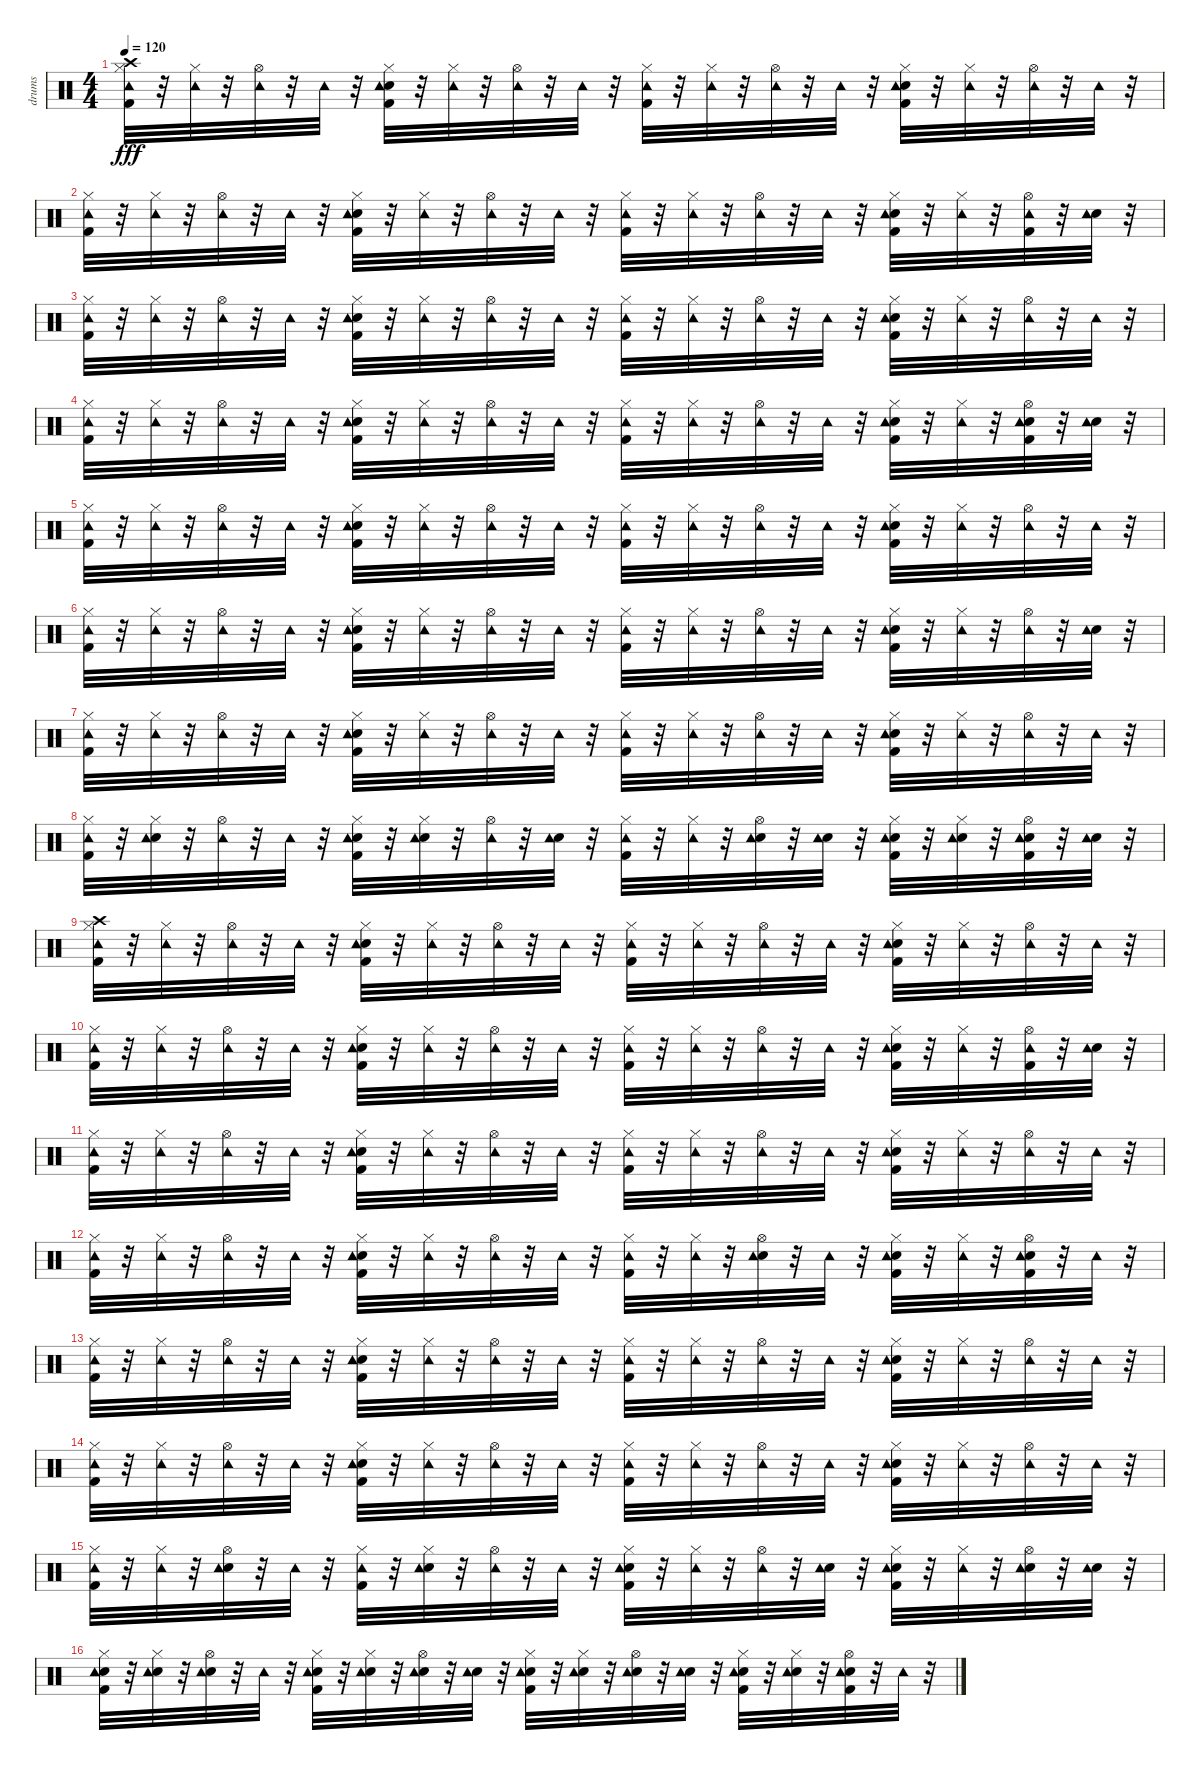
\track ("drums" "drums") {instrument percussion}
\staff {score}
\articulation defaults
\ts (4 4)
\tempo 120
\clef neutral
\ks c
("Crash high (hit)" "Kick (hit) 2" "Hi-Hat (closed)" "Tambourine (hit)").32{dy fff} r.32 ("Hi-Hat (closed)" "Tambourine (hit)").32 r.32 ("Hi-Hat (open)" "Tambourine (hit)").32 r.32 "Tambourine (hit)".32 r.32 ("Snare (hit) 2" "Kick (hit) 2" "Hi-Hat (closed)" "Tambourine (hit)").32 r.32 ("Hi-Hat (closed)" "Tambourine (hit)").32 r.32 ("Hi-Hat (open)" "Tambourine (hit)").32 r.32 "Tambourine (hit)".32 r.32 ("Kick (hit) 2" "Hi-Hat (closed)" "Tambourine (hit)").32 r.32 ("Hi-Hat (closed)" "Tambourine (hit)").32 r.32 ("Hi-Hat (open)" "Tambourine (hit)").32 r.32 "Tambourine (hit)".32 r.32 ("Snare (hit) 2" "Kick (hit) 2" "Hi-Hat (closed)" "Tambourine (hit)").32 r.32 ("Hi-Hat (closed)" "Tambourine (hit)").32 r.32 ("Hi-Hat (open)" "Tambourine (hit)").32 r.32 "Tambourine (hit)".32 r.32 |
("Kick (hit) 2" "Hi-Hat (closed)" "Tambourine (hit)").32 r.32 ("Hi-Hat (closed)" "Tambourine (hit)").32 r.32 ("Hi-Hat (open)" "Tambourine (hit)").32 r.32 "Tambourine (hit)".32 r.32 ("Snare (hit) 2" "Kick (hit) 2" "Hi-Hat (closed)" "Tambourine (hit)").32 r.32 ("Hi-Hat (closed)" "Tambourine (hit)").32 r.32 ("Hi-Hat (open)" "Tambourine (hit)").32 r.32 "Tambourine (hit)".32 r.32 ("Kick (hit) 2" "Hi-Hat (closed)" "Tambourine (hit)").32 r.32 ("Hi-Hat (closed)" "Tambourine (hit)").32 r.32 ("Hi-Hat (open)" "Tambourine (hit)").32 r.32 "Tambourine (hit)".32 r.32 ("Snare (hit) 2" "Kick (hit) 2" "Hi-Hat (closed)" "Tambourine (hit)").32 r.32 ("Hi-Hat (closed)" "Tambourine (hit)").32 r.32 ("Kick (hit) 2" "Hi-Hat (open)" "Tambourine (hit)").32 r.32 ("Snare (hit) 2" "Tambourine (hit)").32 r.32 |
("Kick (hit) 2" "Hi-Hat (closed)" "Tambourine (hit)").32 r.32 ("Hi-Hat (closed)" "Tambourine (hit)").32 r.32 ("Hi-Hat (open)" "Tambourine (hit)").32 r.32 "Tambourine (hit)".32 r.32 ("Snare (hit) 2" "Kick (hit) 2" "Hi-Hat (closed)" "Tambourine (hit)").32 r.32 ("Hi-Hat (closed)" "Tambourine (hit)").32 r.32 ("Hi-Hat (open)" "Tambourine (hit)").32 r.32 "Tambourine (hit)".32 r.32 ("Kick (hit) 2" "Hi-Hat (closed)" "Tambourine (hit)").32 r.32 ("Hi-Hat (closed)" "Tambourine (hit)").32 r.32 ("Hi-Hat (open)" "Tambourine (hit)").32 r.32 "Tambourine (hit)".32 r.32 ("Snare (hit) 2" "Kick (hit) 2" "Hi-Hat (closed)" "Tambourine (hit)").32 r.32 ("Hi-Hat (closed)" "Tambourine (hit)").32 r.32 ("Hi-Hat (open)" "Tambourine (hit)").32 r.32 "Tambourine (hit)".32 r.32 |
("Kick (hit) 2" "Hi-Hat (closed)" "Tambourine (hit)").32 r.32 ("Hi-Hat (closed)" "Tambourine (hit)").32 r.32 ("Hi-Hat (open)" "Tambourine (hit)").32 r.32 "Tambourine (hit)".32 r.32 ("Snare (hit) 2" "Kick (hit) 2" "Hi-Hat (closed)" "Tambourine (hit)").32 r.32 ("Hi-Hat (closed)" "Tambourine (hit)").32 r.32 ("Hi-Hat (open)" "Tambourine (hit)").32 r.32 "Tambourine (hit)".32 r.32 ("Kick (hit) 2" "Hi-Hat (closed)" "Tambourine (hit)").32 r.32 ("Hi-Hat (closed)" "Tambourine (hit)").32 r.32 ("Hi-Hat (open)" "Tambourine (hit)").32 r.32 "Tambourine (hit)".32 r.32 ("Snare (hit) 2" "Kick (hit) 2" "Hi-Hat (closed)" "Tambourine (hit)").32 r.32 ("Hi-Hat (closed)" "Tambourine (hit)").32 r.32 ("Kick (hit) 2" "Snare (hit) 2" "Hi-Hat (open)" "Tambourine (hit)").32 r.32 ("Snare (hit) 2" "Tambourine (hit)").32 r.32 |
("Kick (hit) 2" "Hi-Hat (closed)" "Tambourine (hit)").32 r.32 ("Hi-Hat (closed)" "Tambourine (hit)").32 r.32 ("Hi-Hat (open)" "Tambourine (hit)").32 r.32 "Tambourine (hit)".32 r.32 ("Snare (hit) 2" "Kick (hit) 2" "Hi-Hat (closed)" "Tambourine (hit)").32 r.32 ("Hi-Hat (closed)" "Tambourine (hit)").32 r.32 ("Hi-Hat (open)" "Tambourine (hit)").32 r.32 "Tambourine (hit)".32 r.32 ("Kick (hit) 2" "Hi-Hat (closed)" "Tambourine (hit)").32 r.32 ("Hi-Hat (closed)" "Tambourine (hit)").32 r.32 ("Hi-Hat (open)" "Tambourine (hit)").32 r.32 "Tambourine (hit)".32 r.32 ("Snare (hit) 2" "Kick (hit) 2" "Hi-Hat (closed)" "Tambourine (hit)").32 r.32 ("Hi-Hat (closed)" "Tambourine (hit)").32 r.32 ("Hi-Hat (open)" "Tambourine (hit)").32 r.32 "Tambourine (hit)".32 r.32 |
("Kick (hit) 2" "Hi-Hat (closed)" "Tambourine (hit)").32 r.32 ("Hi-Hat (closed)" "Tambourine (hit)").32 r.32 ("Hi-Hat (open)" "Tambourine (hit)").32 r.32 "Tambourine (hit)".32 r.32 ("Snare (hit) 2" "Kick (hit) 2" "Hi-Hat (closed)" "Tambourine (hit)").32 r.32 ("Hi-Hat (closed)" "Tambourine (hit)").32 r.32 ("Hi-Hat (open)" "Tambourine (hit)").32 r.32 "Tambourine (hit)".32 r.32 ("Kick (hit) 2" "Hi-Hat (closed)" "Tambourine (hit)").32 r.32 ("Hi-Hat (closed)" "Tambourine (hit)").32 r.32 ("Hi-Hat (open)" "Tambourine (hit)").32 r.32 "Tambourine (hit)".32 r.32 ("Snare (hit) 2" "Kick (hit) 2" "Hi-Hat (closed)" "Tambourine (hit)").32 r.32 ("Hi-Hat (closed)" "Tambourine (hit)").32 r.32 ("Hi-Hat (open)" "Tambourine (hit)").32 r.32 ("Snare (hit) 2" "Tambourine (hit)").32 r.32 |
("Kick (hit) 2" "Hi-Hat (closed)" "Tambourine (hit)").32 r.32 ("Hi-Hat (closed)" "Tambourine (hit)").32 r.32 ("Hi-Hat (open)" "Tambourine (hit)").32 r.32 "Tambourine (hit)".32 r.32 ("Snare (hit) 2" "Kick (hit) 2" "Hi-Hat (closed)" "Tambourine (hit)").32 r.32 ("Hi-Hat (closed)" "Tambourine (hit)").32 r.32 ("Hi-Hat (open)" "Tambourine (hit)").32 r.32 "Tambourine (hit)".32 r.32 ("Kick (hit) 2" "Hi-Hat (closed)" "Tambourine (hit)").32 r.32 ("Hi-Hat (closed)" "Tambourine (hit)").32 r.32 ("Hi-Hat (open)" "Tambourine (hit)").32 r.32 "Tambourine (hit)".32 r.32 ("Snare (hit) 2" "Kick (hit) 2" "Hi-Hat (closed)" "Tambourine (hit)").32 r.32 ("Hi-Hat (closed)" "Tambourine (hit)").32 r.32 ("Hi-Hat (open)" "Tambourine (hit)").32 r.32 "Tambourine (hit)".32 r.32 |
("Kick (hit) 2" "Hi-Hat (closed)" "Tambourine (hit)").32 r.32 ("Snare (hit) 2" "Hi-Hat (closed)" "Tambourine (hit)").32 r.32 ("Hi-Hat (open)" "Tambourine (hit)").32 r.32 "Tambourine (hit)".32 r.32 ("Snare (hit) 2" "Kick (hit) 2" "Hi-Hat (closed)" "Tambourine (hit)").32 r.32 ("Snare (hit) 2" "Hi-Hat (closed)" "Tambourine (hit)").32 r.32 ("Hi-Hat (open)" "Tambourine (hit)").32 r.32 ("Snare (hit) 2" "Tambourine (hit)").32 r.32 ("Kick (hit) 2" "Hi-Hat (closed)" "Tambourine (hit)").32 r.32 ("Hi-Hat (closed)" "Tambourine (hit)").32 r.32 ("Hi-Hat (open)" "Snare (hit) 2" "Tambourine (hit)").32 r.32 ("Snare (hit) 2" "Tambourine (hit)").32 r.32 ("Snare (hit) 2" "Kick (hit) 2" "Hi-Hat (closed)" "Tambourine (hit)").32 r.32 ("Snare (hit) 2" "Hi-Hat (closed)" "Tambourine (hit)").32 r.32 ("Kick (hit) 2" "Snare (hit) 2" "Hi-Hat (open)" "Tambourine (hit)").32 r.32 ("Snare (hit) 2" "Tambourine (hit)").32 r.32 |
("Crash high (hit)" "Kick (hit) 2" "Hi-Hat (closed)" "Tambourine (hit)").32 r.32 ("Hi-Hat (closed)" "Tambourine (hit)").32 r.32 ("Hi-Hat (open)" "Tambourine (hit)").32 r.32 "Tambourine (hit)".32 r.32 ("Snare (hit) 2" "Kick (hit) 2" "Hi-Hat (closed)" "Tambourine (hit)").32 r.32 ("Hi-Hat (closed)" "Tambourine (hit)").32 r.32 ("Hi-Hat (open)" "Tambourine (hit)").32 r.32 "Tambourine (hit)".32 r.32 ("Kick (hit) 2" "Hi-Hat (closed)" "Tambourine (hit)").32 r.32 ("Hi-Hat (closed)" "Tambourine (hit)").32 r.32 ("Hi-Hat (open)" "Tambourine (hit)").32 r.32 "Tambourine (hit)".32 r.32 ("Snare (hit) 2" "Kick (hit) 2" "Hi-Hat (closed)" "Tambourine (hit)").32 r.32 ("Hi-Hat (closed)" "Tambourine (hit)").32 r.32 ("Hi-Hat (open)" "Tambourine (hit)").32 r.32 "Tambourine (hit)".32 r.32 |
("Kick (hit) 2" "Hi-Hat (closed)" "Tambourine (hit)").32 r.32 ("Hi-Hat (closed)" "Tambourine (hit)").32 r.32 ("Hi-Hat (open)" "Tambourine (hit)").32 r.32 "Tambourine (hit)".32 r.32 ("Snare (hit) 2" "Kick (hit) 2" "Hi-Hat (closed)" "Tambourine (hit)").32 r.32 ("Hi-Hat (closed)" "Tambourine (hit)").32 r.32 ("Hi-Hat (open)" "Tambourine (hit)").32 r.32 "Tambourine (hit)".32 r.32 ("Kick (hit) 2" "Hi-Hat (closed)" "Tambourine (hit)").32 r.32 ("Hi-Hat (closed)" "Tambourine (hit)").32 r.32 ("Hi-Hat (open)" "Tambourine (hit)").32 r.32 "Tambourine (hit)".32 r.32 ("Snare (hit) 2" "Kick (hit) 2" "Hi-Hat (closed)" "Tambourine (hit)").32 r.32 ("Hi-Hat (closed)" "Tambourine (hit)").32 r.32 ("Kick (hit) 2" "Hi-Hat (open)" "Tambourine (hit)").32 r.32 ("Snare (hit) 2" "Tambourine (hit)").32 r.32 |
("Kick (hit) 2" "Hi-Hat (closed)" "Tambourine (hit)").32 r.32 ("Hi-Hat (closed)" "Tambourine (hit)").32 r.32 ("Hi-Hat (open)" "Tambourine (hit)").32 r.32 "Tambourine (hit)".32 r.32 ("Snare (hit) 2" "Kick (hit) 2" "Hi-Hat (closed)" "Tambourine (hit)").32 r.32 ("Hi-Hat (closed)" "Tambourine (hit)").32 r.32 ("Hi-Hat (open)" "Tambourine (hit)").32 r.32 "Tambourine (hit)".32 r.32 ("Kick (hit) 2" "Hi-Hat (closed)" "Tambourine (hit)").32 r.32 ("Hi-Hat (closed)" "Tambourine (hit)").32 r.32 ("Hi-Hat (open)" "Tambourine (hit)").32 r.32 "Tambourine (hit)".32 r.32 ("Snare (hit) 2" "Kick (hit) 2" "Hi-Hat (closed)" "Tambourine (hit)").32 r.32 ("Hi-Hat (closed)" "Tambourine (hit)").32 r.32 ("Hi-Hat (open)" "Tambourine (hit)").32 r.32 "Tambourine (hit)".32 r.32 |
("Kick (hit) 2" "Hi-Hat (closed)" "Tambourine (hit)").32 r.32 ("Hi-Hat (closed)" "Tambourine (hit)").32 r.32 ("Hi-Hat (open)" "Tambourine (hit)").32 r.32 "Tambourine (hit)".32 r.32 ("Snare (hit) 2" "Kick (hit) 2" "Hi-Hat (closed)" "Tambourine (hit)").32 r.32 ("Hi-Hat (closed)" "Tambourine (hit)").32 r.32 ("Hi-Hat (open)" "Tambourine (hit)").32 r.32 "Tambourine (hit)".32 r.32 ("Kick (hit) 2" "Hi-Hat (closed)" "Tambourine (hit)").32 r.32 ("Hi-Hat (closed)" "Tambourine (hit)").32 r.32 ("Snare (hit) 2" "Hi-Hat (open)" "Tambourine (hit)").32 r.32 "Tambourine (hit)".32 r.32 ("Snare (hit) 2" "Kick (hit) 2" "Hi-Hat (closed)" "Tambourine (hit)").32 r.32 ("Hi-Hat (closed)" "Tambourine (hit)").32 r.32 ("Kick (hit) 2" "Snare (hit) 2" "Hi-Hat (open)" "Tambourine (hit)").32 r.32 "Tambourine (hit)".32 r.32 |
("Kick (hit) 2" "Hi-Hat (closed)" "Tambourine (hit)").32 r.32 ("Hi-Hat (closed)" "Tambourine (hit)").32 r.32 ("Hi-Hat (open)" "Tambourine (hit)").32 r.32 "Tambourine (hit)".32 r.32 ("Snare (hit) 2" "Kick (hit) 2" "Hi-Hat (closed)" "Tambourine (hit)").32 r.32 ("Hi-Hat (closed)" "Tambourine (hit)").32 r.32 ("Hi-Hat (open)" "Tambourine (hit)").32 r.32 "Tambourine (hit)".32 r.32 ("Kick (hit) 2" "Hi-Hat (closed)" "Tambourine (hit)").32 r.32 ("Hi-Hat (closed)" "Tambourine (hit)").32 r.32 ("Hi-Hat (open)" "Tambourine (hit)").32 r.32 "Tambourine (hit)".32 r.32 ("Snare (hit) 2" "Kick (hit) 2" "Hi-Hat (closed)" "Tambourine (hit)").32 r.32 ("Hi-Hat (closed)" "Tambourine (hit)").32 r.32 ("Hi-Hat (open)" "Tambourine (hit)").32 r.32 "Tambourine (hit)".32 r.32 |
("Kick (hit) 2" "Hi-Hat (closed)" "Tambourine (hit)").32 r.32 ("Hi-Hat (closed)" "Tambourine (hit)").32 r.32 ("Hi-Hat (open)" "Tambourine (hit)").32 r.32 "Tambourine (hit)".32 r.32 ("Snare (hit) 2" "Kick (hit) 2" "Hi-Hat (closed)" "Tambourine (hit)").32 r.32 ("Hi-Hat (closed)" "Tambourine (hit)").32 r.32 ("Hi-Hat (open)" "Tambourine (hit)").32 r.32 "Tambourine (hit)".32 r.32 ("Kick (hit) 2" "Hi-Hat (closed)" "Tambourine (hit)").32 r.32 ("Hi-Hat (closed)" "Tambourine (hit)").32 r.32 ("Hi-Hat (open)" "Tambourine (hit)").32 r.32 "Tambourine (hit)".32 r.32 ("Snare (hit) 2" "Kick (hit) 2" "Hi-Hat (closed)" "Tambourine (hit)").32 r.32 ("Hi-Hat (closed)" "Tambourine (hit)").32 r.32 ("Hi-Hat (open)" "Tambourine (hit)").32 r.32 "Tambourine (hit)".32 r.32 |
("Kick (hit) 2" "Hi-Hat (closed)" "Tambourine (hit)").32 r.32 ("Hi-Hat (closed)" "Tambourine (hit)").32 r.32 ("Snare (hit) 2" "Hi-Hat (open)" "Tambourine (hit)").32 r.32 "Tambourine (hit)".32 r.32 ("Kick (hit) 2" "Hi-Hat (closed)" "Tambourine (hit)").32 r.32 ("Snare (hit) 2" "Hi-Hat (closed)" "Tambourine (hit)").32 r.32 ("Hi-Hat (open)" "Tambourine (hit)").32 r.32 "Tambourine (hit)".32 r.32 ("Kick (hit) 2" "Snare (hit) 2" "Hi-Hat (closed)" "Tambourine (hit)").32 r.32 ("Hi-Hat (closed)" "Tambourine (hit)").32 r.32 ("Hi-Hat (open)" "Tambourine (hit)").32 r.32 ("Snare (hit) 2" "Tambourine (hit)").32 r.32 ("Snare (hit) 2" "Kick (hit) 2" "Hi-Hat (closed)" "Tambourine (hit)").32 r.32 ("Hi-Hat (closed)" "Tambourine (hit)").32 r.32 ("Hi-Hat (open)" "Snare (hit) 2" "Tambourine (hit)").32 r.32 ("Snare (hit) 2" "Tambourine (hit)").32 r.32 |
("Kick (hit) 2" "Snare (hit) 2" "Hi-Hat (closed)" "Tambourine (hit)").32 r.32 ("Snare (hit) 2" "Hi-Hat (closed)" "Tambourine (hit)").32 r.32 ("Snare (hit) 2" "Hi-Hat (open)" "Tambourine (hit)").32 r.32 "Tambourine (hit)".32 r.32 ("Snare (hit) 2" "Kick (hit) 2" "Hi-Hat (closed)" "Tambourine (hit)").32 r.32 ("Snare (hit) 2" "Hi-Hat (closed)" "Tambourine (hit)").32 r.32 ("Snare (hit) 2" "Hi-Hat (open)" "Tambourine (hit)").32 r.32 ("Snare (hit) 2" "Tambourine (hit)").32 r.32 ("Kick (hit) 2" "Snare (hit) 2" "Hi-Hat (closed)" "Tambourine (hit)").32 r.32 ("Snare (hit) 2" "Hi-Hat (closed)" "Tambourine (hit)").32 r.32 ("Snare (hit) 2" "Hi-Hat (open)" "Tambourine (hit)").32 r.32 ("Snare (hit) 2" "Tambourine (hit)").32 r.32 ("Snare (hit) 2" "Kick (hit) 2" "Hi-Hat (closed)" "Tambourine (hit)").32 r.32 ("Snare (hit) 2" "Hi-Hat (closed)" "Tambourine (hit)").32 r.32 ("Kick (hit) 2" "Snare (hit) 2" "Hi-Hat (open)" "Tambourine (hit)").32 r.32 "Tambourine (hit)".32 r.32
